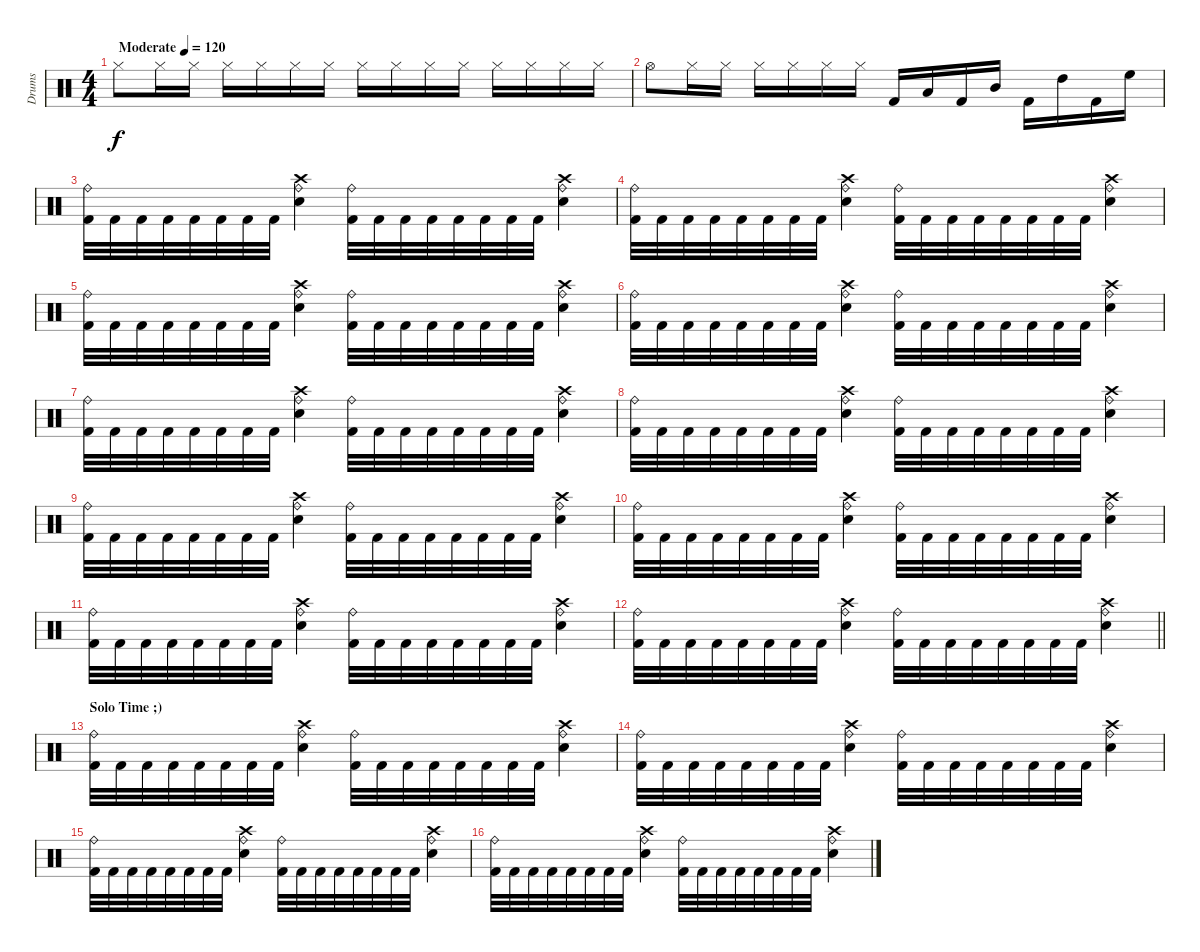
\track ("Drums" "Drums") {instrument percussion}
\staff {score}
\articulation defaults
\ts (4 4)
\tempo (120 "Moderate")
\clef neutral
\ks c "Hi-Hat (closed)".8{dy f} "Hi-Hat (closed)".16 "Hi-Hat (closed)".16 "Hi-Hat (closed)".16 "Hi-Hat (closed)".16 "Hi-Hat (closed)".16 "Hi-Hat (closed)".16 "Hi-Hat (closed)".16 "Hi-Hat (closed)".16 "Hi-Hat (closed)".16 "Hi-Hat (closed)".16 "Hi-Hat (closed)".16 "Hi-Hat (closed)".16 "Hi-Hat (closed)".16 "Hi-Hat (closed)".16
|
"Hi-Hat (open)".8 "Hi-Hat (closed)".16 "Hi-Hat (closed)".16 "Hi-Hat (closed)".16 "Hi-Hat (closed)".16 "Hi-Hat (closed)".16 "Hi-Hat (closed)".16 "Kick (hit) 2".16 "Low Tom (hit)".16 "Kick (hit) 2".16 "Mid Tom (hit)".16 "Kick (hit) 2".16 "High Tom (hit)".16 "Kick (hit) 2".16 "High Floor Tom (hit)".16 |
("Ride (bell)" "Kick (hit) 2").32 "Kick (hit) 2".32 "Kick (hit) 2".32 "Kick (hit) 2".32 "Kick (hit) 2".32 "Kick (hit) 2".32 "Kick (hit) 2".32 "Kick (hit) 2".32 ("Ride (bell)" "Electric Snare (hit)" "Crash high (hit)").4 ("Ride (bell)" "Kick (hit) 2").32 "Kick (hit) 2".32 "Kick (hit) 2".32 "Kick (hit) 2".32 "Kick (hit) 2".32 "Kick (hit) 2".32 "Kick (hit) 2".32 "Kick (hit) 2".32 ("Ride (bell)" "Electric Snare (hit)" "Crash high (hit)").4 |
("Ride (bell)" "Kick (hit) 2").32 "Kick (hit) 2".32 "Kick (hit) 2".32 "Kick (hit) 2".32 "Kick (hit) 2".32 "Kick (hit) 2".32 "Kick (hit) 2".32 "Kick (hit) 2".32 ("Ride (bell)" "Electric Snare (hit)" "Crash high (hit)").4 ("Ride (bell)" "Kick (hit) 2").32 "Kick (hit) 2".32 "Kick (hit) 2".32 "Kick (hit) 2".32 "Kick (hit) 2".32 "Kick (hit) 2".32 "Kick (hit) 2".32 "Kick (hit) 2".32 ("Ride (bell)" "Electric Snare (hit)" "Crash high (hit)").4 |
("Ride (bell)" "Kick (hit) 2").32 "Kick (hit) 2".32 "Kick (hit) 2".32 "Kick (hit) 2".32 "Kick (hit) 2".32 "Kick (hit) 2".32 "Kick (hit) 2".32 "Kick (hit) 2".32 ("Ride (bell)" "Electric Snare (hit)" "Crash high (hit)").4 ("Ride (bell)" "Kick (hit) 2").32 "Kick (hit) 2".32 "Kick (hit) 2".32 "Kick (hit) 2".32 "Kick (hit) 2".32 "Kick (hit) 2".32 "Kick (hit) 2".32 "Kick (hit) 2".32 ("Ride (bell)" "Electric Snare (hit)" "Crash high (hit)").4 |
("Ride (bell)" "Kick (hit) 2").32 "Kick (hit) 2".32 "Kick (hit) 2".32 "Kick (hit) 2".32 "Kick (hit) 2".32 "Kick (hit) 2".32 "Kick (hit) 2".32 "Kick (hit) 2".32 ("Ride (bell)" "Electric Snare (hit)" "Crash high (hit)").4 ("Ride (bell)" "Kick (hit) 2").32 "Kick (hit) 2".32 "Kick (hit) 2".32 "Kick (hit) 2".32 "Kick (hit) 2".32 "Kick (hit) 2".32 "Kick (hit) 2".32 "Kick (hit) 2".32 ("Ride (bell)" "Electric Snare (hit)" "Crash high (hit)").4 |
("Ride (bell)" "Kick (hit) 2").32 "Kick (hit) 2".32 "Kick (hit) 2".32 "Kick (hit) 2".32 "Kick (hit) 2".32 "Kick (hit) 2".32 "Kick (hit) 2".32 "Kick (hit) 2".32 ("Ride (bell)" "Electric Snare (hit)" "Crash high (hit)").4 ("Ride (bell)" "Kick (hit) 2").32 "Kick (hit) 2".32 "Kick (hit) 2".32 "Kick (hit) 2".32 "Kick (hit) 2".32 "Kick (hit) 2".32 "Kick (hit) 2".32 "Kick (hit) 2".32 ("Ride (bell)" "Electric Snare (hit)" "Crash high (hit)").4 |
("Ride (bell)" "Kick (hit) 2").32 "Kick (hit) 2".32 "Kick (hit) 2".32 "Kick (hit) 2".32 "Kick (hit) 2".32 "Kick (hit) 2".32 "Kick (hit) 2".32 "Kick (hit) 2".32 ("Ride (bell)" "Electric Snare (hit)" "Crash high (hit)").4 ("Ride (bell)" "Kick (hit) 2").32 "Kick (hit) 2".32 "Kick (hit) 2".32 "Kick (hit) 2".32 "Kick (hit) 2".32 "Kick (hit) 2".32 "Kick (hit) 2".32 "Kick (hit) 2".32 ("Ride (bell)" "Electric Snare (hit)" "Crash high (hit)").4 |
("Ride (bell)" "Kick (hit) 2").32 "Kick (hit) 2".32 "Kick (hit) 2".32 "Kick (hit) 2".32 "Kick (hit) 2".32 "Kick (hit) 2".32 "Kick (hit) 2".32 "Kick (hit) 2".32 ("Ride (bell)" "Electric Snare (hit)" "Crash high (hit)").4 ("Ride (bell)" "Kick (hit) 2").32 "Kick (hit) 2".32 "Kick (hit) 2".32 "Kick (hit) 2".32 "Kick (hit) 2".32 "Kick (hit) 2".32 "Kick (hit) 2".32 "Kick (hit) 2".32 ("Ride (bell)" "Electric Snare (hit)" "Crash high (hit)").4 |
("Ride (bell)" "Kick (hit) 2").32 "Kick (hit) 2".32 "Kick (hit) 2".32 "Kick (hit) 2".32 "Kick (hit) 2".32 "Kick (hit) 2".32 "Kick (hit) 2".32 "Kick (hit) 2".32 ("Ride (bell)" "Electric Snare (hit)" "Crash high (hit)").4 ("Ride (bell)" "Kick (hit) 2").32 "Kick (hit) 2".32 "Kick (hit) 2".32 "Kick (hit) 2".32 "Kick (hit) 2".32 "Kick (hit) 2".32 "Kick (hit) 2".32 "Kick (hit) 2".32 ("Ride (bell)" "Electric Snare (hit)" "Crash high (hit)").4 |
("Ride (bell)" "Kick (hit) 2").32 "Kick (hit) 2".32 "Kick (hit) 2".32 "Kick (hit) 2".32 "Kick (hit) 2".32 "Kick (hit) 2".32 "Kick (hit) 2".32 "Kick (hit) 2".32 ("Ride (bell)" "Electric Snare (hit)" "Crash high (hit)").4 ("Ride (bell)" "Kick (hit) 2").32 "Kick (hit) 2".32 "Kick (hit) 2".32 "Kick (hit) 2".32 "Kick (hit) 2".32 "Kick (hit) 2".32 "Kick (hit) 2".32 "Kick (hit) 2".32 ("Ride (bell)" "Electric Snare (hit)" "Crash high (hit)").4 |
\barLineRight lightlight
("Ride (bell)" "Kick (hit) 2").32 "Kick (hit) 2".32 "Kick (hit) 2".32 "Kick (hit) 2".32 "Kick (hit) 2".32 "Kick (hit) 2".32 "Kick (hit) 2".32 "Kick (hit) 2".32 ("Ride (bell)" "Electric Snare (hit)" "Crash high (hit)").4 ("Ride (bell)" "Kick (hit) 2").32 "Kick (hit) 2".32 "Kick (hit) 2".32 "Kick (hit) 2".32 "Kick (hit) 2".32 "Kick (hit) 2".32 "Kick (hit) 2".32 "Kick (hit) 2".32 ("Ride (bell)" "Electric Snare (hit)" "Crash high (hit)").4 |
\section ("" "Solo Time ;) ")
("Ride (bell)" "Kick (hit) 2").32 "Kick (hit) 2".32 "Kick (hit) 2".32 "Kick (hit) 2".32 "Kick (hit) 2".32 "Kick (hit) 2".32 "Kick (hit) 2".32 "Kick (hit) 2".32 ("Ride (bell)" "Electric Snare (hit)" "Crash high (hit)").4 ("Ride (bell)" "Kick (hit) 2").32 "Kick (hit) 2".32 "Kick (hit) 2".32 "Kick (hit) 2".32 "Kick (hit) 2".32 "Kick (hit) 2".32 "Kick (hit) 2".32 "Kick (hit) 2".32 ("Ride (bell)" "Electric Snare (hit)" "Crash high (hit)").4 |
("Ride (bell)" "Kick (hit) 2").32 "Kick (hit) 2".32 "Kick (hit) 2".32 "Kick (hit) 2".32 "Kick (hit) 2".32 "Kick (hit) 2".32 "Kick (hit) 2".32 "Kick (hit) 2".32 ("Ride (bell)" "Electric Snare (hit)" "Crash high (hit)").4 ("Ride (bell)" "Kick (hit) 2").32 "Kick (hit) 2".32 "Kick (hit) 2".32 "Kick (hit) 2".32 "Kick (hit) 2".32 "Kick (hit) 2".32 "Kick (hit) 2".32 "Kick (hit) 2".32 ("Ride (bell)" "Electric Snare (hit)" "Crash high (hit)").4 |
("Ride (bell)" "Kick (hit) 2").32 "Kick (hit) 2".32 "Kick (hit) 2".32 "Kick (hit) 2".32 "Kick (hit) 2".32 "Kick (hit) 2".32 "Kick (hit) 2".32 "Kick (hit) 2".32 ("Ride (bell)" "Electric Snare (hit)" "Crash high (hit)").4 ("Ride (bell)" "Kick (hit) 2").32 "Kick (hit) 2".32 "Kick (hit) 2".32 "Kick (hit) 2".32 "Kick (hit) 2".32 "Kick (hit) 2".32 "Kick (hit) 2".32 "Kick (hit) 2".32 ("Ride (bell)" "Electric Snare (hit)" "Crash high (hit)").4 |
("Ride (bell)" "Kick (hit) 2").32 "Kick (hit) 2".32 "Kick (hit) 2".32 "Kick (hit) 2".32 "Kick (hit) 2".32 "Kick (hit) 2".32 "Kick (hit) 2".32 "Kick (hit) 2".32 ("Ride (bell)" "Electric Snare (hit)" "Crash high (hit)").4 ("Ride (bell)" "Kick (hit) 2").32 "Kick (hit) 2".32 "Kick (hit) 2".32 "Kick (hit) 2".32 "Kick (hit) 2".32 "Kick (hit) 2".32 "Kick (hit) 2".32 "Kick (hit) 2".32 ("Ride (bell)" "Electric Snare (hit)" "Crash high (hit)").4
